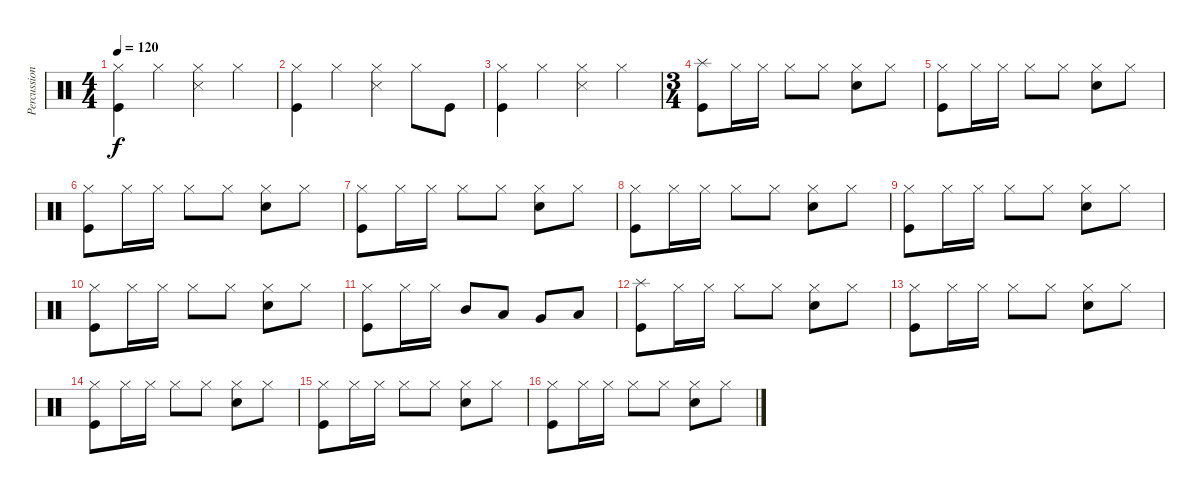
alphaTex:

\track ("Percussion" "Percussion") {instrument percussion}
\staff {score}
\articulation defaults
\ts (4 4)
\tempo 120
\clef neutral
\ks c
("Hi-Hat (closed)" "Kick (hit)").4{dy f} "Hi-Hat (closed)".4 ("Hi-Hat (closed)" "Snare (side stick) 3").4 "Hi-Hat (closed)".4 |
("Hi-Hat (closed)" "Kick (hit)").4 "Hi-Hat (closed)".4 ("Hi-Hat (closed)" "Snare (side stick) 3").4 "Hi-Hat (closed)".8 "Kick (hit)".8 |
("Hi-Hat (closed)" "Kick (hit)").4 "Hi-Hat (closed)".4 ("Hi-Hat (closed)" "Snare (side stick) 3").4 "Hi-Hat (closed)".4 |
\ts (3 4)
("Splash (hit)" "Kick (hit)").8 "Hi-Hat (closed)".16 "Hi-Hat (closed)".16 "Hi-Hat (closed)".8 "Hi-Hat (closed)".8 ("Hi-Hat (closed)" "Electric Snare (hit)").8 "Hi-Hat (closed)".8 |
("Hi-Hat (closed)" "Kick (hit)").8 "Hi-Hat (closed)".16 "Hi-Hat (closed)".16 "Hi-Hat (closed)".8 "Hi-Hat (closed)".8 ("Hi-Hat (closed)" "Electric Snare (hit)").8 "Hi-Hat (closed)".8 |
("Hi-Hat (closed)" "Kick (hit)").8 "Hi-Hat (closed)".16 "Hi-Hat (closed)".16 "Hi-Hat (closed)".8 "Hi-Hat (closed)".8 ("Hi-Hat (closed)" "Electric Snare (hit)").8 "Hi-Hat (closed)".8 |
("Hi-Hat (closed)" "Kick (hit)").8 "Hi-Hat (closed)".16 "Hi-Hat (closed)".16 "Hi-Hat (closed)".8 "Hi-Hat (closed)".8 ("Hi-Hat (closed)" "Electric Snare (hit)").8 "Hi-Hat (closed)".8 |
("Hi-Hat (closed)" "Kick (hit)").8 "Hi-Hat (closed)".16 "Hi-Hat (closed)".16 "Hi-Hat (closed)".8 "Hi-Hat (closed)".8 ("Hi-Hat (closed)" "Electric Snare (hit)").8 "Hi-Hat (closed)".8 |
("Hi-Hat (closed)" "Kick (hit)").8 "Hi-Hat (closed)".16 "Hi-Hat (closed)".16 "Hi-Hat (closed)".8 "Hi-Hat (closed)".8 ("Hi-Hat (closed)" "Electric Snare (hit)").8 "Hi-Hat (closed)".8 |
("Hi-Hat (closed)" "Kick (hit)").8 "Hi-Hat (closed)".16 "Hi-Hat (closed)".16 "Hi-Hat (closed)".8 "Hi-Hat (closed)".8 ("Hi-Hat (closed)" "Electric Snare (hit)").8 "Hi-Hat (closed)".8 |
("Hi-Hat (closed)" "Kick (hit)").8 "Hi-Hat (closed)".16 "Hi-Hat (closed)".16 "Mid Tom (hit)".8 "Low Tom (hit)".8 "Very Low Tom (hit)".8 "Low Floor Tom (hit)".8 |
("Splash (hit)" "Kick (hit)").8 "Hi-Hat (closed)".16 "Hi-Hat (closed)".16 "Hi-Hat (closed)".8 "Hi-Hat (closed)".8 ("Hi-Hat (closed)" "Electric Snare (hit)").8 "Hi-Hat (closed)".8 |
("Hi-Hat (closed)" "Kick (hit)").8 "Hi-Hat (closed)".16 "Hi-Hat (closed)".16 "Hi-Hat (closed)".8 "Hi-Hat (closed)".8 ("Hi-Hat (closed)" "Electric Snare (hit)").8 "Hi-Hat (closed)".8 |
("Hi-Hat (closed)" "Kick (hit)").8 "Hi-Hat (closed)".16 "Hi-Hat (closed)".16 "Hi-Hat (closed)".8 "Hi-Hat (closed)".8 ("Hi-Hat (closed)" "Electric Snare (hit)").8 "Hi-Hat (closed)".8 |
("Hi-Hat (closed)" "Kick (hit)").8 "Hi-Hat (closed)".16 "Hi-Hat (closed)".16 "Hi-Hat (closed)".8 "Hi-Hat (closed)".8 ("Hi-Hat (closed)" "Electric Snare (hit)").8 "Hi-Hat (closed)".8 |
("Hi-Hat (closed)" "Kick (hit)").8 "Hi-Hat (closed)".16 "Hi-Hat (closed)".16 "Hi-Hat (closed)".8 "Hi-Hat (closed)".8 ("Hi-Hat (closed)" "Electric Snare (hit)").8 "Hi-Hat (closed)".8
